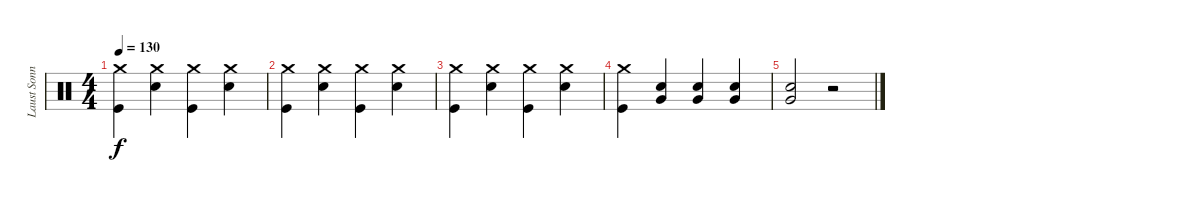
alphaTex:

\track ("Laust Sonne (Trommer)" "Laust Sonn") {instrument percussion}
\staff {score}
\articulation defaults
\ts (4 4)
\tempo 130
\clef neutral
\ks c
("Crash medium (hit)" "Kick (hit)").4{dy f} ("Crash medium (hit)" "Snare (hit) 2").4 ("Crash medium (hit)" "Kick (hit)").4 ("Crash medium (hit)" "Snare (hit) 2").4 |
("Crash medium (hit)" "Kick (hit)").4 ("Crash medium (hit)" "Snare (hit) 2").4 ("Crash medium (hit)" "Kick (hit)").4 ("Crash medium (hit)" "Snare (hit) 2").4 |
("Crash medium (hit)" "Kick (hit)").4 ("Crash medium (hit)" "Snare (hit) 2").4 ("Crash medium (hit)" "Kick (hit)").4 ("Crash medium (hit)" "Snare (hit) 2").4 |
("Crash medium (hit)" "Kick (hit)").4 ("Very Low Tom (hit)" "Snare (hit) 2").4 ("Very Low Tom (hit)" "Snare (hit) 2").4 ("Very Low Tom (hit)" "Snare (hit) 2").4 |
("Very Low Tom (hit)" "Snare (hit) 2").2 r.2
